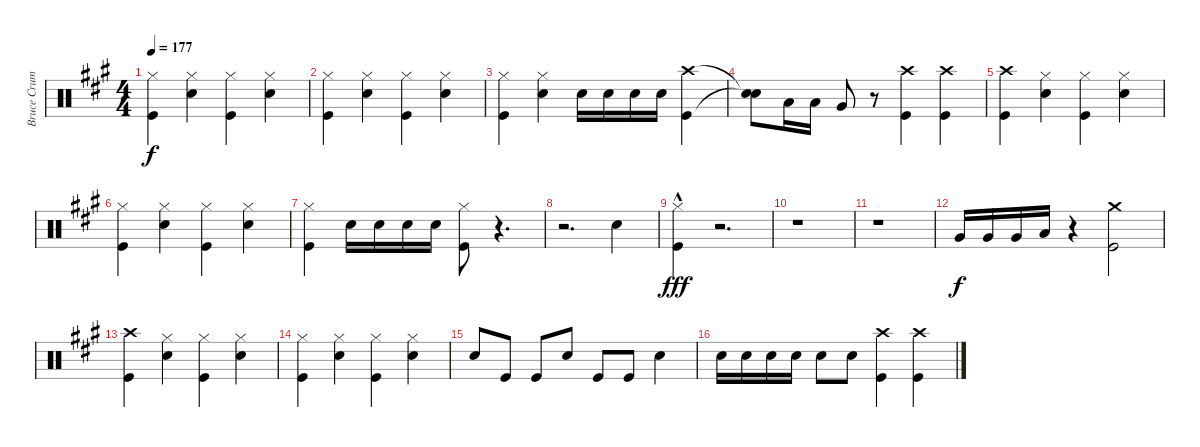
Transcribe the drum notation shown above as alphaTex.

\track ("Bruce Crump Drums" "Bruce Crum") {instrument percussion}
\staff {score}
\articulation defaults
\ts (4 4)
\tempo 177
\clef neutral
\ks a
("Hi-Hat (closed)" "Kick (hit)").4{dy f} ("Hi-Hat (closed)" "Snare (hit) 2").4 ("Hi-Hat (closed)" "Kick (hit)").4 ("Hi-Hat (closed)" "Snare (hit) 2").4 |
("Hi-Hat (closed)" "Kick (hit)").4 ("Hi-Hat (closed)" "Snare (hit) 2").4 ("Hi-Hat (closed)" "Kick (hit)").4 ("Hi-Hat (closed)" "Snare (hit) 2").4 |
("Hi-Hat (closed)" "Kick (hit)").4 ("Hi-Hat (closed)" "Snare (hit) 2").4 "Snare (hit) 2".16 "Snare (hit) 2".16 "Snare (hit) 2".16 "Snare (hit) 2".16 ("Crash high (hit)" "Kick (hit)").4 |
("Snare (hit)"{t} "Snare (hit)"{t}).8 "Low Tom (hit)".16 "Low Tom (hit)".16 "Very Low Tom (hit)".8 r.8 ("Crash high (hit)" "Kick (hit)").4 ("Crash high (hit)" "Kick (hit)").4 |
("Crash high (hit)" "Kick (hit)").4 ("Hi-Hat (closed)" "Snare (hit) 2").4 ("Hi-Hat (closed)" "Kick (hit)").4 ("Hi-Hat (closed)" "Snare (hit) 2").4 |
("Hi-Hat (closed)" "Kick (hit)").4 ("Hi-Hat (closed)" "Snare (hit) 2").4 ("Hi-Hat (closed)" "Kick (hit)").4 ("Hi-Hat (closed)" "Snare (hit) 2").4 |
("Hi-Hat (closed)" "Kick (hit)").4 "Snare (hit) 2".16 "Snare (hit) 2".16 "Snare (hit) 2".16 "Snare (hit) 2".16 ("Hi-Hat (closed)" "Kick (hit)").8 r.4{d} |
r.2{d} "Snare (hit) 2".4 |
("Hi-Hat (closed)"{hac} "Kick (hit)").4{dy fff} r.2{d} |
r.1 |
r.1 |
"Very Low Tom (hit)".16{dy f} "Very Low Tom (hit)".16 "Very Low Tom (hit)".16 "Low Floor Tom (hit)".16 r.4 ("Crash medium (hit)" "Kick (hit)").2 |
("Crash high (hit)" "Kick (hit)").4 ("Hi-Hat (closed)" "Snare (hit) 2").4 ("Hi-Hat (closed)" "Kick (hit)").4 ("Hi-Hat (closed)" "Snare (hit) 2").4 |
("Hi-Hat (closed)" "Kick (hit)").4 ("Hi-Hat (closed)" "Snare (hit) 2").4 ("Hi-Hat (closed)" "Kick (hit)").4 ("Hi-Hat (closed)" "Snare (hit) 2").4 |
"Snare (hit) 2".8 "Kick (hit)".8 "Kick (hit)".8 "Snare (hit) 2".8 "Kick (hit)".8 "Kick (hit)".8 "Snare (hit) 2".4 |
"Snare (hit) 2".16 "Snare (hit) 2".16 "Snare (hit) 2".16 "Snare (hit) 2".16 "Snare (hit) 2".8 "Snare (hit) 2".8 ("Crash high (hit)" "Kick (hit)").4 ("Crash high (hit)" "Kick (hit)").4
